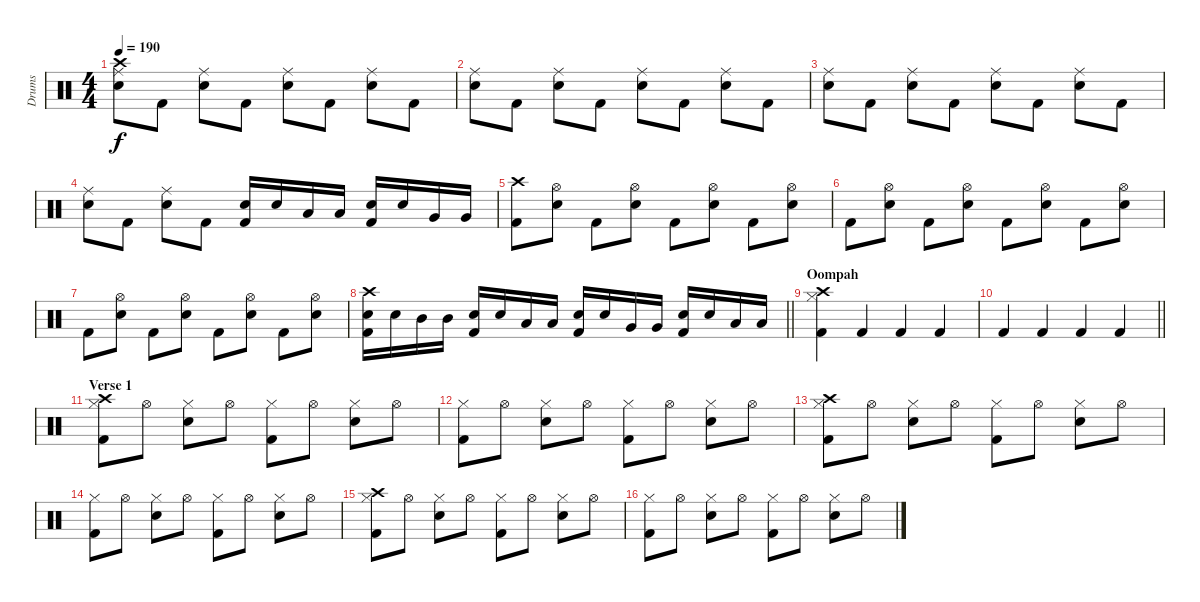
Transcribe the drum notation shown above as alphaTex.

\track ("Drums" "Drums") {instrument percussion}
\staff {score}
\articulation defaults
\ts (4 4)
\tempo 190
\clef neutral
\ks c
("Crash high (hit)" "Ride (middle)" "Snare (hit) 2").8{dy f} "Kick (hit) 2".8 ("Ride (middle)" "Snare (hit) 2").8 "Kick (hit) 2".8 ("Ride (middle)" "Snare (hit) 2").8 "Kick (hit) 2".8 ("Ride (middle)" "Snare (hit) 2").8 "Kick (hit) 2".8 |
("Ride (middle)" "Snare (hit) 2").8 "Kick (hit) 2".8 ("Ride (middle)" "Snare (hit) 2").8 "Kick (hit) 2".8 ("Ride (middle)" "Snare (hit) 2").8 "Kick (hit) 2".8 ("Ride (middle)" "Snare (hit) 2").8 "Kick (hit) 2".8 |
("Ride (middle)" "Snare (hit) 2").8 "Kick (hit) 2".8 ("Ride (middle)" "Snare (hit) 2").8 "Kick (hit) 2".8 ("Ride (middle)" "Snare (hit) 2").8 "Kick (hit) 2".8 ("Ride (middle)" "Snare (hit) 2").8 "Kick (hit) 2".8 |
("Ride (middle)" "Snare (hit) 2").8 "Kick (hit) 2".8 ("Ride (middle)" "Snare (hit) 2").8 "Kick (hit) 2".8 ("Snare (hit) 2" "Kick (hit) 2").16 "Snare (hit) 2".16 "Low Tom (hit)".16 "Low Tom (hit)".16 ("Snare (hit) 2" "Kick (hit) 2").16 "Snare (hit) 2".16 "Very Low Tom (hit)".16 "Very Low Tom (hit)".16 |
("Crash high (hit)" "Kick (hit) 2").8 ("Hi-Hat (open)" "Snare (hit) 2").8 "Kick (hit) 2".8 ("Hi-Hat (open)" "Snare (hit) 2").8 "Kick (hit) 2".8 ("Hi-Hat (open)" "Snare (hit) 2").8 "Kick (hit) 2".8 ("Hi-Hat (open)" "Snare (hit) 2").8 |
"Kick (hit) 2".8 ("Hi-Hat (open)" "Snare (hit) 2").8 "Kick (hit) 2".8 ("Hi-Hat (open)" "Snare (hit) 2").8 "Kick (hit) 2".8 ("Hi-Hat (open)" "Snare (hit) 2").8 "Kick (hit) 2".8 ("Hi-Hat (open)" "Snare (hit) 2").8 |
"Kick (hit) 2".8 ("Hi-Hat (open)" "Snare (hit) 2").8 "Kick (hit) 2".8 ("Hi-Hat (open)" "Snare (hit) 2").8 "Kick (hit) 2".8 ("Hi-Hat (open)" "Snare (hit) 2").8 "Kick (hit) 2".8 ("Hi-Hat (open)" "Snare (hit) 2").8 |
\barLineRight lightlight
("Crash high (hit)" "Snare (hit) 2" "Kick (hit) 2").16 "Snare (hit) 2".16 "Mid Tom (hit)".16 "Mid Tom (hit)".16 ("Snare (hit) 2" "Kick (hit) 2").16 "Snare (hit) 2".16 "Low Tom (hit)".16 "Low Tom (hit)".16 ("Snare (hit) 2" "Kick (hit) 2").16 "Snare (hit) 2".16 "Very Low Tom (hit)".16 "Very Low Tom (hit)".16 ("Snare (hit) 2" "Kick (hit) 2").16 "Snare (hit) 2".16 "Low Floor Tom (hit)".16 "Low Floor Tom (hit)".16 |
\section ("" "Oompah")
("Crash high (hit)" "Hi-Hat (closed)" "Kick (hit) 2").4 "Kick (hit) 2".4 "Kick (hit) 2".4 "Kick (hit) 2".4 |
\barLineRight lightlight "Kick (hit) 2".4 "Kick (hit) 2".4 "Kick (hit) 2".4 "Kick (hit) 2".4
|
\section ("" "Verse 1")
("Crash high (hit)" "Hi-Hat (closed)" "Kick (hit) 2").8 "Hi-Hat (open)".8 ("Hi-Hat (closed)" "Snare (hit) 2").8 "Hi-Hat (open)".8 ("Hi-Hat (closed)" "Kick (hit) 2").8 "Hi-Hat (open)".8 ("Hi-Hat (closed)" "Snare (hit) 2").8 "Hi-Hat (open)".8 |
("Hi-Hat (closed)" "Kick (hit) 2").8 "Hi-Hat (open)".8 ("Hi-Hat (closed)" "Snare (hit) 2").8 "Hi-Hat (open)".8 ("Hi-Hat (closed)" "Kick (hit) 2").8 "Hi-Hat (open)".8 ("Hi-Hat (closed)" "Snare (hit) 2").8 "Hi-Hat (open)".8 |
("Crash high (hit)" "Hi-Hat (closed)" "Kick (hit) 2").8 "Hi-Hat (open)".8 ("Hi-Hat (closed)" "Snare (hit) 2").8 "Hi-Hat (open)".8 ("Hi-Hat (closed)" "Kick (hit) 2").8 "Hi-Hat (open)".8 ("Hi-Hat (closed)" "Snare (hit) 2").8 "Hi-Hat (open)".8 |
("Hi-Hat (closed)" "Kick (hit) 2").8 "Hi-Hat (open)".8 ("Hi-Hat (closed)" "Snare (hit) 2").8 "Hi-Hat (open)".8 ("Hi-Hat (closed)" "Kick (hit) 2").8 "Hi-Hat (open)".8 ("Hi-Hat (closed)" "Snare (hit) 2").8 "Hi-Hat (open)".8 |
("Crash high (hit)" "Hi-Hat (closed)" "Kick (hit) 2").8 "Hi-Hat (open)".8 ("Hi-Hat (closed)" "Snare (hit) 2").8 "Hi-Hat (open)".8 ("Hi-Hat (closed)" "Kick (hit) 2").8 "Hi-Hat (open)".8 ("Hi-Hat (closed)" "Snare (hit) 2").8 "Hi-Hat (open)".8 |
("Hi-Hat (closed)" "Kick (hit) 2").8 "Hi-Hat (open)".8 ("Hi-Hat (closed)" "Snare (hit) 2").8 "Hi-Hat (open)".8 ("Hi-Hat (closed)" "Kick (hit) 2").8 "Hi-Hat (open)".8 ("Hi-Hat (closed)" "Snare (hit) 2").8 "Hi-Hat (open)".8
